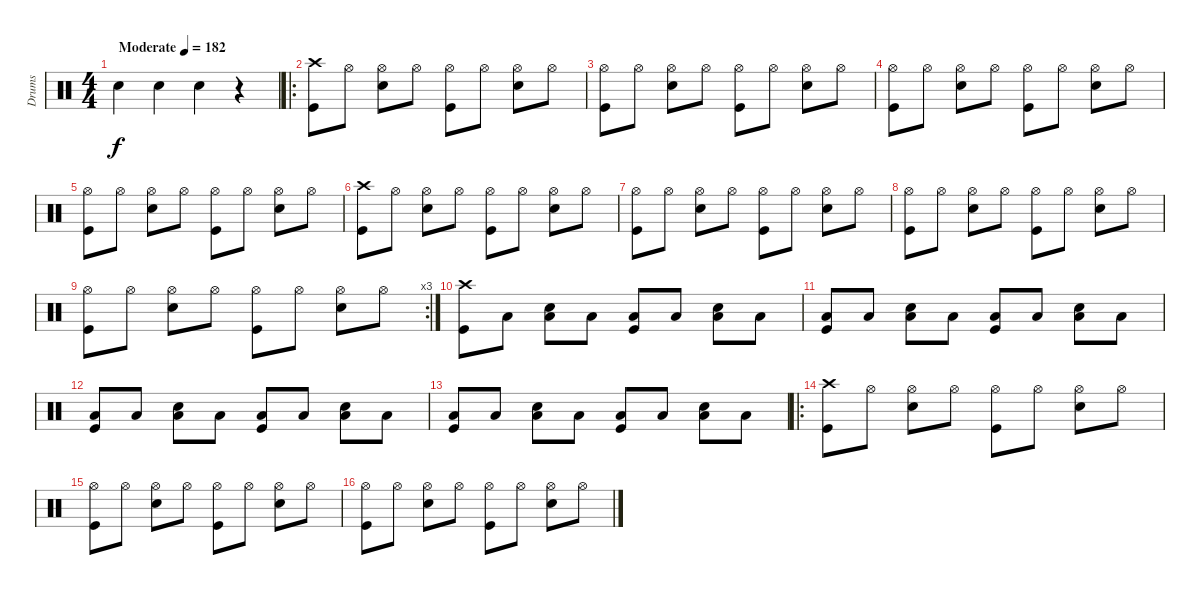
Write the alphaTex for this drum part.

\track ("Drums" "Drums") {instrument percussion}
\staff {score}
\articulation defaults
\ts (4 4)
\tempo (182 "Moderate")
\clef neutral
\ks c "Snare (hit) 2".4{dy f} "Snare (hit) 2".4 "Snare (hit) 2".4
r.4 |
\ro
("Crash high (hit)" "Kick (hit)").8 "Hi-Hat (open)".8 ("Hi-Hat (open)" "Snare (hit) 2").8 "Hi-Hat (open)".8 ("Hi-Hat (open)" "Kick (hit)").8 "Hi-Hat (open)".8 ("Hi-Hat (open)" "Snare (hit) 2").8 "Hi-Hat (open)".8 |
("Hi-Hat (open)" "Kick (hit)").8 "Hi-Hat (open)".8 ("Hi-Hat (open)" "Snare (hit) 2").8 "Hi-Hat (open)".8 ("Hi-Hat (open)" "Kick (hit)").8 "Hi-Hat (open)".8 ("Hi-Hat (open)" "Snare (hit) 2").8 "Hi-Hat (open)".8 |
("Hi-Hat (open)" "Kick (hit)").8 "Hi-Hat (open)".8 ("Hi-Hat (open)" "Snare (hit) 2").8 "Hi-Hat (open)".8 ("Hi-Hat (open)" "Kick (hit)").8 "Hi-Hat (open)".8 ("Hi-Hat (open)" "Snare (hit) 2").8 "Hi-Hat (open)".8 |
("Hi-Hat (open)" "Kick (hit)").8 "Hi-Hat (open)".8 ("Hi-Hat (open)" "Snare (hit) 2").8 "Hi-Hat (open)".8 ("Hi-Hat (open)" "Kick (hit)").8 "Hi-Hat (open)".8 ("Hi-Hat (open)" "Snare (hit) 2").8 "Hi-Hat (open)".8 |
("Crash high (hit)" "Kick (hit)").8 "Hi-Hat (open)".8 ("Hi-Hat (open)" "Snare (hit) 2").8 "Hi-Hat (open)".8 ("Hi-Hat (open)" "Kick (hit)").8 "Hi-Hat (open)".8 ("Hi-Hat (open)" "Snare (hit) 2").8 "Hi-Hat (open)".8 |
("Hi-Hat (open)" "Kick (hit)").8 "Hi-Hat (open)".8 ("Hi-Hat (open)" "Snare (hit) 2").8 "Hi-Hat (open)".8 ("Hi-Hat (open)" "Kick (hit)").8 "Hi-Hat (open)".8 ("Hi-Hat (open)" "Snare (hit) 2").8 "Hi-Hat (open)".8 |
("Hi-Hat (open)" "Kick (hit)").8 "Hi-Hat (open)".8 ("Hi-Hat (open)" "Snare (hit) 2").8 "Hi-Hat (open)".8 ("Hi-Hat (open)" "Kick (hit)").8 "Hi-Hat (open)".8 ("Hi-Hat (open)" "Snare (hit) 2").8 "Hi-Hat (open)".8 |
\rc 3
("Hi-Hat (open)" "Kick (hit)").8 "Hi-Hat (open)".8 ("Hi-Hat (open)" "Snare (hit) 2").8 "Hi-Hat (open)".8 ("Hi-Hat (open)" "Kick (hit)").8 "Hi-Hat (open)".8 ("Hi-Hat (open)" "Snare (hit) 2").8 "Hi-Hat (open)".8 |
("Crash high (hit)" "Kick (hit)").8 "Low Floor Tom (hit)".8 ("Snare (hit) 2" "Low Floor Tom (hit)").8 "Low Floor Tom (hit)".8 ("Low Floor Tom (hit)" "Kick (hit)").8 "Low Floor Tom (hit)".8 ("Snare (hit) 2" "Low Floor Tom (hit)").8 "Low Floor Tom (hit)".8 |
("Low Floor Tom (hit)" "Kick (hit)").8 "Low Floor Tom (hit)".8 ("Snare (hit) 2" "Low Floor Tom (hit)").8 "Low Floor Tom (hit)".8 ("Low Floor Tom (hit)" "Kick (hit)").8 "Low Floor Tom (hit)".8 ("Snare (hit) 2" "Low Floor Tom (hit)").8 "Low Floor Tom (hit)".8 |
("Low Floor Tom (hit)" "Kick (hit)").8 "Low Floor Tom (hit)".8 ("Snare (hit) 2" "Low Floor Tom (hit)").8 "Low Floor Tom (hit)".8 ("Low Floor Tom (hit)" "Kick (hit)").8 "Low Floor Tom (hit)".8 ("Snare (hit) 2" "Low Floor Tom (hit)").8 "Low Floor Tom (hit)".8 |
("Low Floor Tom (hit)" "Kick (hit)").8 "Low Floor Tom (hit)".8 ("Snare (hit) 2" "Low Floor Tom (hit)").8 "Low Floor Tom (hit)".8 ("Low Floor Tom (hit)" "Kick (hit)").8 "Low Floor Tom (hit)".8 ("Snare (hit) 2" "Low Floor Tom (hit)").8 "Low Floor Tom (hit)".8 |
\ro
("Crash high (hit)" "Kick (hit)").8 "Hi-Hat (open)".8 ("Hi-Hat (open)" "Snare (hit) 2").8 "Hi-Hat (open)".8 ("Hi-Hat (open)" "Kick (hit)").8 "Hi-Hat (open)".8 ("Hi-Hat (open)" "Snare (hit) 2").8 "Hi-Hat (open)".8 |
("Hi-Hat (open)" "Kick (hit)").8 "Hi-Hat (open)".8 ("Hi-Hat (open)" "Snare (hit) 2").8 "Hi-Hat (open)".8 ("Hi-Hat (open)" "Kick (hit)").8 "Hi-Hat (open)".8 ("Hi-Hat (open)" "Snare (hit) 2").8 "Hi-Hat (open)".8 |
("Hi-Hat (open)" "Kick (hit)").8 "Hi-Hat (open)".8 ("Hi-Hat (open)" "Snare (hit) 2").8 "Hi-Hat (open)".8 ("Hi-Hat (open)" "Kick (hit)").8 "Hi-Hat (open)".8 ("Hi-Hat (open)" "Snare (hit) 2").8 "Hi-Hat (open)".8
